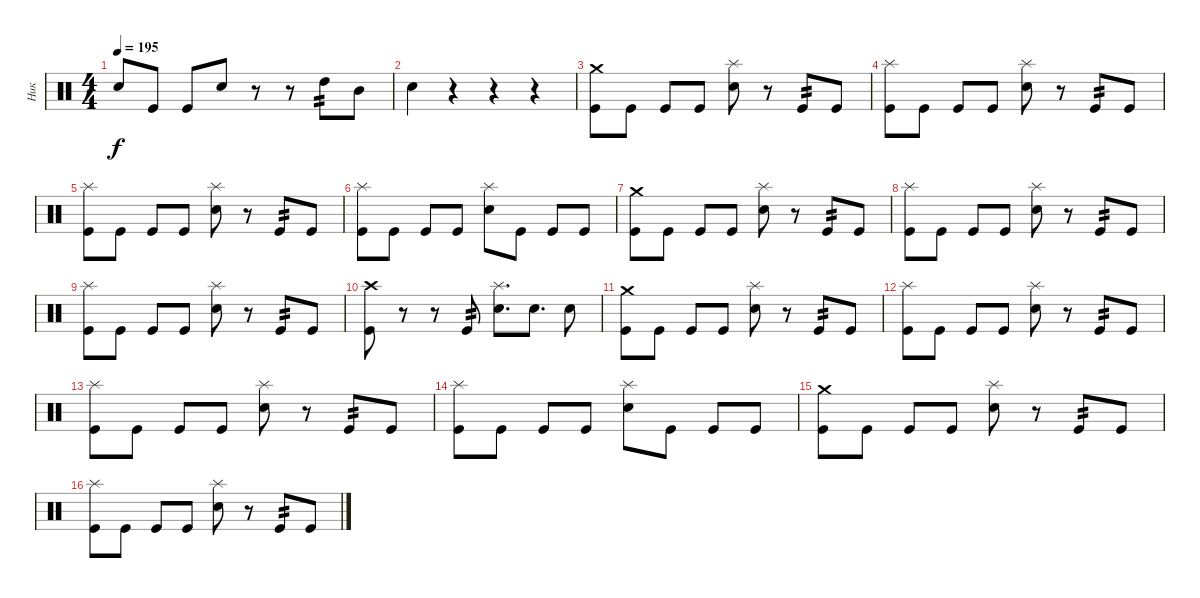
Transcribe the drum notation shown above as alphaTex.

\track ("Ник" "Ник") {instrument percussion}
\staff {score}
\articulation defaults
\ts (4 4)
\tempo 195
\clef neutral
\ks c "Snare (hit) 2".8{dy f} "Kick (hit)".8 "Kick (hit)".8 "Snare (hit) 2".8
r.8 r.8 "High Tom (hit)".8{tp 2} "Mid Tom (hit)".8 |
"Snare (hit) 2".4 r.4 r.4 r.4 |
("Crash medium (hit)" "Kick (hit)").8 "Kick (hit)".8 "Kick (hit)".8 "Kick (hit)".8 ("Splash (hit)" "Snare (hit) 2").8 r.8 "Kick (hit)".8{tp 2} "Kick (hit)".8 |
("Splash (hit)" "Kick (hit)").8 "Kick (hit)".8 "Kick (hit)".8 "Kick (hit)".8 ("Splash (hit)" "Snare (hit) 2").8 r.8 "Kick (hit)".8{tp 2} "Kick (hit)".8 |
("Splash (hit)" "Kick (hit)").8 "Kick (hit)".8 "Kick (hit)".8 "Kick (hit)".8 ("Splash (hit)" "Snare (hit) 2").8 r.8 "Kick (hit)".8{tp 2} "Kick (hit)".8 |
("Splash (hit)" "Kick (hit)").8 "Kick (hit)".8 "Kick (hit)".8 "Kick (hit)".8 ("Splash (hit)" "Snare (hit) 2").8 "Kick (hit)".8 "Kick (hit)".8 "Kick (hit)".8 |
("Crash medium (hit)" "Kick (hit)").8 "Kick (hit)".8 "Kick (hit)".8 "Kick (hit)".8 ("Splash (hit)" "Snare (hit) 2").8 r.8 "Kick (hit)".8{tp 2} "Kick (hit)".8 |
("Splash (hit)" "Kick (hit)").8 "Kick (hit)".8 "Kick (hit)".8 "Kick (hit)".8 ("Splash (hit)" "Snare (hit) 2").8 r.8 "Kick (hit)".8{tp 2} "Kick (hit)".8 |
("Splash (hit)" "Kick (hit)").8 "Kick (hit)".8 "Kick (hit)".8 "Kick (hit)".8 ("Splash (hit)" "Snare (hit) 2").8 r.8 "Kick (hit)".8{tp 2} "Kick (hit)".8 |
("Crash high (hit)" "Kick (hit)").8 r.8 r.8 "Kick (hit)".8{tp 2} ("Splash (hit)" "Snare (hit) 2").8{d} "Snare (hit) 2".8{d} "Snare (hit) 2".8 |
("Crash medium (hit)" "Kick (hit)").8 "Kick (hit)".8 "Kick (hit)".8 "Kick (hit)".8 ("Splash (hit)" "Snare (hit) 2").8 r.8 "Kick (hit)".8{tp 2} "Kick (hit)".8 |
("Splash (hit)" "Kick (hit)").8 "Kick (hit)".8 "Kick (hit)".8 "Kick (hit)".8 ("Splash (hit)" "Snare (hit) 2").8 r.8 "Kick (hit)".8{tp 2} "Kick (hit)".8 |
("Splash (hit)" "Kick (hit)").8 "Kick (hit)".8 "Kick (hit)".8 "Kick (hit)".8 ("Splash (hit)" "Snare (hit) 2").8 r.8 "Kick (hit)".8{tp 2} "Kick (hit)".8 |
("Splash (hit)" "Kick (hit)").8 "Kick (hit)".8 "Kick (hit)".8 "Kick (hit)".8 ("Splash (hit)" "Snare (hit) 2").8 "Kick (hit)".8 "Kick (hit)".8 "Kick (hit)".8 |
("Crash medium (hit)" "Kick (hit)").8 "Kick (hit)".8 "Kick (hit)".8 "Kick (hit)".8 ("Splash (hit)" "Snare (hit) 2").8 r.8 "Kick (hit)".8{tp 2} "Kick (hit)".8 |
("Splash (hit)" "Kick (hit)").8 "Kick (hit)".8 "Kick (hit)".8 "Kick (hit)".8 ("Splash (hit)" "Snare (hit) 2").8 r.8 "Kick (hit)".8{tp 2} "Kick (hit)".8
